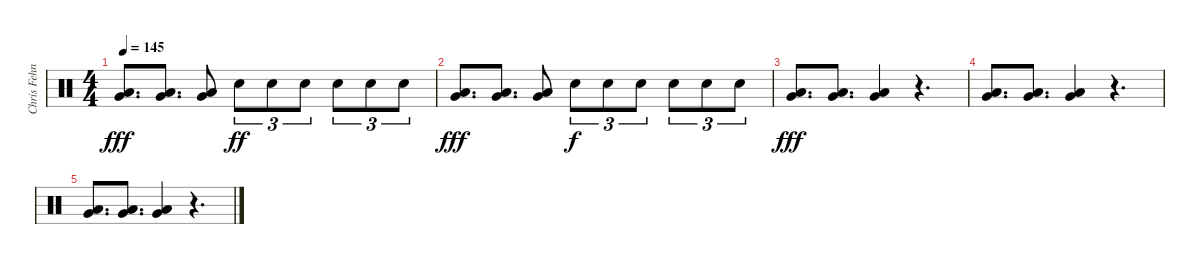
\track ("Chris Fehn" "Chris Fehn") {instrument percussion}
\staff {score}
\articulation defaults
\ts (4 4)
\tempo 145
\clef neutral
\ks c
("Very Low Tom (hit)" "Low Floor Tom (hit)").8{d dy fff} ("Very Low Tom (hit)" "Low Floor Tom (hit)").8{d} ("Very Low Tom (hit)" "Low Floor Tom (hit)").8 "Electric Snare (hit)".8{tu (3 2) dy ff} "Electric Snare (hit)".8{tu (3 2)} "Electric Snare (hit)".8{tu (3 2)} "Electric Snare (hit)".8{tu (3 2)} "Electric Snare (hit)".8{tu (3 2)} "Electric Snare (hit)".8{tu (3 2)} |
("Very Low Tom (hit)" "Low Floor Tom (hit)").8{d dy fff} ("Very Low Tom (hit)" "Low Floor Tom (hit)").8{d} ("Very Low Tom (hit)" "Low Floor Tom (hit)").8 "Electric Snare (hit)".8{tu (3 2) dy f} "Electric Snare (hit)".8{tu (3 2)} "Electric Snare (hit)".8{tu (3 2)} "Electric Snare (hit)".8{tu (3 2)} "Electric Snare (hit)".8{tu (3 2)} "Electric Snare (hit)".8{tu (3 2)} |
("Very Low Tom (hit)" "Low Floor Tom (hit)").8{d dy fff} ("Very Low Tom (hit)" "Low Floor Tom (hit)").8{d} ("Very Low Tom (hit)" "Low Floor Tom (hit)").4 r.4{d} |
("Very Low Tom (hit)" "Low Floor Tom (hit)").8{d} ("Very Low Tom (hit)" "Low Floor Tom (hit)").8{d} ("Very Low Tom (hit)" "Low Floor Tom (hit)").4 r.4{d} |
("Very Low Tom (hit)" "Low Floor Tom (hit)").8{d} ("Very Low Tom (hit)" "Low Floor Tom (hit)").8{d} ("Very Low Tom (hit)" "Low Floor Tom (hit)").4 r.4{d}
